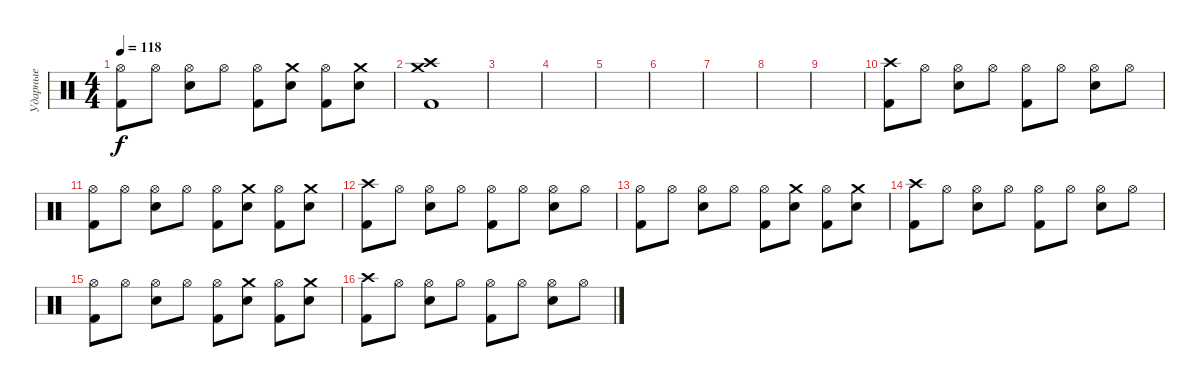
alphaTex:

\track ("Ударные" "Ударные") {instrument percussion}
\staff {score}
\articulation defaults
\ts (4 4)
\tempo 118
\clef neutral
\ks c
("Hi-Hat (open)" "Kick (hit) 2").8{dy f} "Hi-Hat (open)".8 ("Hi-Hat (open)" "Snare (hit) 2").8 "Hi-Hat (open)".8 ("Hi-Hat (open)" "Kick (hit) 2").8 ("Crash medium (hit)" "Snare (hit) 2").8 ("Hi-Hat (open)" "Kick (hit) 2").8 ("Crash medium (hit)" "Snare (hit) 2").8 |
("Crash medium (hit)" "Crash high (hit)" "Kick (hit) 2").1 |
|
|
|
|
|
|
|
("Crash high (hit)" "Kick (hit) 2").8 "Hi-Hat (open)".8 ("Hi-Hat (open)" "Snare (hit) 2").8 "Hi-Hat (open)".8 ("Hi-Hat (open)" "Kick (hit) 2").8 "Hi-Hat (open)".8 ("Hi-Hat (open)" "Snare (hit) 2").8 "Hi-Hat (open)".8 |
("Hi-Hat (open)" "Kick (hit) 2").8 "Hi-Hat (open)".8 ("Hi-Hat (open)" "Snare (hit) 2").8 "Hi-Hat (open)".8 ("Hi-Hat (open)" "Kick (hit) 2").8 ("Crash medium (hit)" "Snare (hit) 2").8 ("Hi-Hat (open)" "Kick (hit) 2").8 ("Crash medium (hit)" "Snare (hit) 2").8 |
("Crash high (hit)" "Kick (hit) 2").8 "Hi-Hat (open)".8 ("Hi-Hat (open)" "Snare (hit) 2").8 "Hi-Hat (open)".8 ("Hi-Hat (open)" "Kick (hit) 2").8 "Hi-Hat (open)".8 ("Hi-Hat (open)" "Snare (hit) 2").8 "Hi-Hat (open)".8 |
("Hi-Hat (open)" "Kick (hit) 2").8 "Hi-Hat (open)".8 ("Hi-Hat (open)" "Snare (hit) 2").8 "Hi-Hat (open)".8 ("Hi-Hat (open)" "Kick (hit) 2").8 ("Crash medium (hit)" "Snare (hit) 2").8 ("Hi-Hat (open)" "Kick (hit) 2").8 ("Crash medium (hit)" "Snare (hit) 2").8 |
("Crash high (hit)" "Kick (hit) 2").8 "Hi-Hat (open)".8 ("Hi-Hat (open)" "Snare (hit) 2").8 "Hi-Hat (open)".8 ("Hi-Hat (open)" "Kick (hit) 2").8 "Hi-Hat (open)".8 ("Hi-Hat (open)" "Snare (hit) 2").8 "Hi-Hat (open)".8 |
("Hi-Hat (open)" "Kick (hit) 2").8 "Hi-Hat (open)".8 ("Hi-Hat (open)" "Snare (hit) 2").8 "Hi-Hat (open)".8 ("Hi-Hat (open)" "Kick (hit) 2").8 ("Crash medium (hit)" "Snare (hit) 2").8 ("Hi-Hat (open)" "Kick (hit) 2").8 ("Crash medium (hit)" "Snare (hit) 2").8 |
("Crash high (hit)" "Kick (hit) 2").8 "Hi-Hat (open)".8 ("Hi-Hat (open)" "Snare (hit) 2").8 "Hi-Hat (open)".8 ("Hi-Hat (open)" "Kick (hit) 2").8 "Hi-Hat (open)".8 ("Hi-Hat (open)" "Snare (hit) 2").8 "Hi-Hat (open)".8
